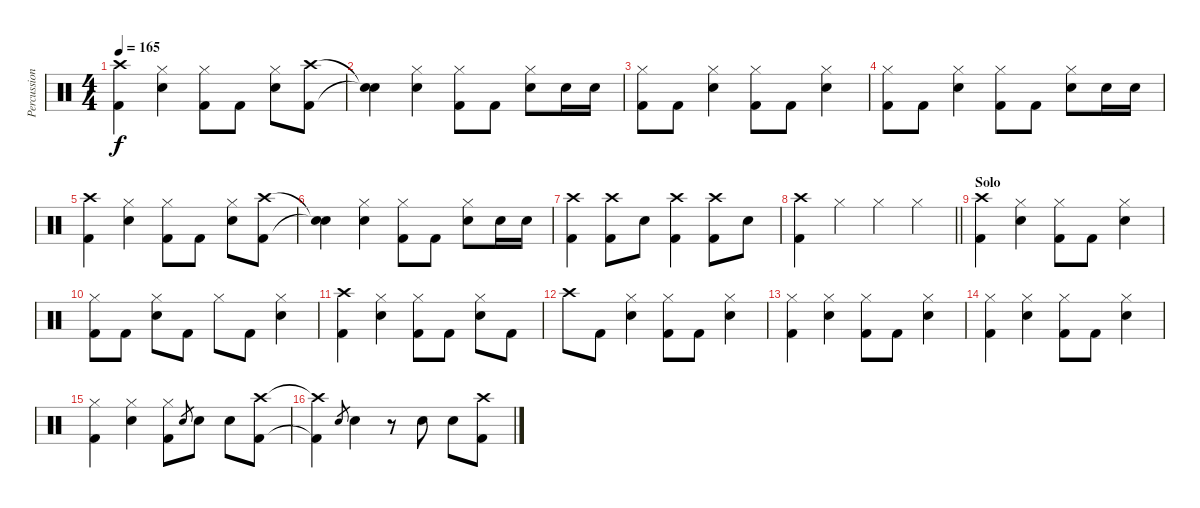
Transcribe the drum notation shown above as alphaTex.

\track ("Percussions" "Percussion") {instrument percussion}
\staff {score}
\articulation defaults
\ts (4 4)
\tempo 165
\clef neutral
\ks c
("Crash high (hit)" "Kick (hit) 2").4{dy f} ("Hi-Hat (closed)" "Electric Snare (hit)").4 ("Hi-Hat (closed)" "Kick (hit) 2").8 "Kick (hit) 2".8 ("Hi-Hat (closed)" "Electric Snare (hit)").8 ("Crash high (hit)" "Kick (hit) 2").8 |
("Snare (hit)"{t} "Snare (hit)"{t}).4 ("Hi-Hat (closed)" "Electric Snare (hit)").4 ("Hi-Hat (closed)" "Kick (hit) 2").8 "Kick (hit) 2".8 ("Hi-Hat (closed)" "Electric Snare (hit)").8 "Electric Snare (hit)".16 "Electric Snare (hit)".16 |
("Hi-Hat (closed)" "Kick (hit) 2").8 "Kick (hit) 2".8 ("Hi-Hat (closed)" "Electric Snare (hit)").4 ("Hi-Hat (closed)" "Kick (hit) 2").8 "Kick (hit) 2".8 ("Hi-Hat (closed)" "Electric Snare (hit)").4 |
("Hi-Hat (closed)" "Kick (hit) 2").8 "Kick (hit) 2".8 ("Hi-Hat (closed)" "Electric Snare (hit)").4 ("Hi-Hat (closed)" "Kick (hit) 2").8 "Kick (hit) 2".8 ("Hi-Hat (closed)" "Electric Snare (hit)").8 "Electric Snare (hit)".16 "Electric Snare (hit)".16 |
("Crash high (hit)" "Kick (hit) 2").4 ("Hi-Hat (closed)" "Electric Snare (hit)").4 ("Hi-Hat (closed)" "Kick (hit) 2").8 "Kick (hit) 2".8 ("Hi-Hat (closed)" "Electric Snare (hit)").8 ("Crash high (hit)" "Kick (hit) 2").8 |
("Snare (hit)"{t} "Snare (hit)"{t}).4 ("Hi-Hat (closed)" "Electric Snare (hit)").4 ("Hi-Hat (closed)" "Kick (hit) 2").8 "Kick (hit) 2".8 ("Hi-Hat (closed)" "Electric Snare (hit)").8 "Electric Snare (hit)".16 "Electric Snare (hit)".16 |
("Crash high (hit)" "Kick (hit) 2").4 ("Crash high (hit)" "Kick (hit) 2").8 "Electric Snare (hit)".8 ("Crash high (hit)" "Kick (hit) 2").4 ("Crash high (hit)" "Kick (hit) 2").8 "Electric Snare (hit)".8 |
\barLineRight lightlight
("Crash high (hit)" "Kick (hit) 2").4 "Hi-Hat (closed)".4 "Hi-Hat (closed)".4 "Hi-Hat (closed)".4 |
\section ("" "Solo")
("Crash high (hit)" "Kick (hit) 2").4 ("Hi-Hat (closed)" "Electric Snare (hit)").4 ("Hi-Hat (closed)" "Kick (hit) 2").8 "Kick (hit) 2".8 ("Hi-Hat (closed)" "Electric Snare (hit)").4 |
("Hi-Hat (closed)" "Kick (hit) 2").8 "Kick (hit) 2".8 ("Hi-Hat (closed)" "Electric Snare (hit)").8 "Kick (hit) 2".8 "Hi-Hat (closed)".8 "Kick (hit) 2".8 ("Hi-Hat (closed)" "Electric Snare (hit)").4 |
("Crash high (hit)" "Kick (hit) 2").4 ("Hi-Hat (closed)" "Electric Snare (hit)").4 ("Hi-Hat (closed)" "Kick (hit) 2").8 "Kick (hit) 2".8 ("Hi-Hat (closed)" "Electric Snare (hit)").8 "Kick (hit) 2".8 |
"Crash high (hit)".8 "Kick (hit) 2".8 ("Hi-Hat (closed)" "Electric Snare (hit)").4 ("Hi-Hat (closed)" "Kick (hit) 2").8 "Kick (hit) 2".8 ("Hi-Hat (closed)" "Electric Snare (hit)").4 |
("Hi-Hat (closed)" "Kick (hit) 2").4 ("Hi-Hat (closed)" "Electric Snare (hit)").4 ("Hi-Hat (closed)" "Kick (hit) 2").8 "Kick (hit) 2".8 ("Hi-Hat (closed)" "Electric Snare (hit)").4 |
("Hi-Hat (closed)" "Kick (hit) 2").4 ("Hi-Hat (closed)" "Electric Snare (hit)").4 ("Hi-Hat (closed)" "Kick (hit) 2").8 "Kick (hit) 2".8 ("Hi-Hat (closed)" "Electric Snare (hit)").4 |
("Hi-Hat (closed)" "Kick (hit) 2").4 ("Hi-Hat (closed)" "Electric Snare (hit)").4 ("Hi-Hat (closed)" "Kick (hit) 2").8 "Electric Snare (hit)".8{gr} "Electric Snare (hit)".8 "Electric Snare (hit)".8 ("Crash high (hit)" "Kick (hit) 2").8 |
("Crash high (hit)"{t} "Kick (hit) 2"{t}).4 "Electric Snare (hit)".8{gr} "Electric Snare (hit)".4 r.8 "Electric Snare (hit)".8 "Electric Snare (hit)".8 ("Crash high (hit)" "Kick (hit) 2").8
